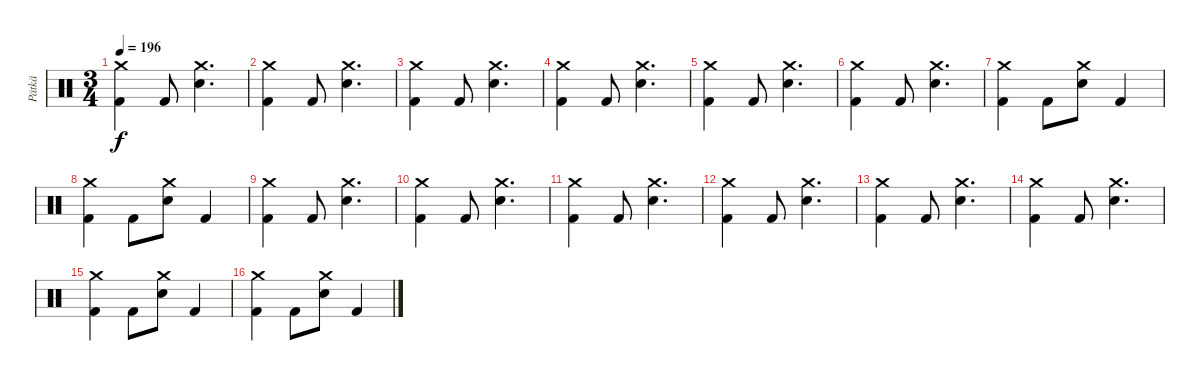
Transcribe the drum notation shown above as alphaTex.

\track ("Pätkä" "Pätkä") {instrument percussion}
\staff {score}
\articulation defaults
\ts (3 4)
\tempo 196
\clef neutral
\ks c
("Crash medium (hit)" "Kick (hit) 2").4{dy f} "Kick (hit) 2".8 ("Crash medium (hit)" "Electric Snare (hit)").4{d} |
("Crash medium (hit)" "Kick (hit) 2").4 "Kick (hit) 2".8 ("Crash medium (hit)" "Electric Snare (hit)").4{d} |
("Crash medium (hit)" "Kick (hit) 2").4 "Kick (hit) 2".8 ("Crash medium (hit)" "Electric Snare (hit)").4{d} |
("Crash medium (hit)" "Kick (hit) 2").4 "Kick (hit) 2".8 ("Crash medium (hit)" "Electric Snare (hit)").4{d} |
("Crash medium (hit)" "Kick (hit) 2").4 "Kick (hit) 2".8 ("Crash medium (hit)" "Electric Snare (hit)").4{d} |
("Crash medium (hit)" "Kick (hit) 2").4 "Kick (hit) 2".8 ("Crash medium (hit)" "Electric Snare (hit)").4{d} |
("Crash medium (hit)" "Kick (hit) 2").4 "Kick (hit) 2".8 ("Crash medium (hit)" "Electric Snare (hit)").8 "Kick (hit) 2".4 |
("Crash medium (hit)" "Kick (hit) 2").4 "Kick (hit) 2".8 ("Crash medium (hit)" "Electric Snare (hit)").8 "Kick (hit) 2".4 |
("Crash medium (hit)" "Kick (hit) 2").4 "Kick (hit) 2".8 ("Crash medium (hit)" "Electric Snare (hit)").4{d} |
("Crash medium (hit)" "Kick (hit) 2").4 "Kick (hit) 2".8 ("Crash medium (hit)" "Electric Snare (hit)").4{d} |
("Crash medium (hit)" "Kick (hit) 2").4 "Kick (hit) 2".8 ("Crash medium (hit)" "Electric Snare (hit)").4{d} |
("Crash medium (hit)" "Kick (hit) 2").4 "Kick (hit) 2".8 ("Crash medium (hit)" "Electric Snare (hit)").4{d} |
("Crash medium (hit)" "Kick (hit) 2").4 "Kick (hit) 2".8 ("Crash medium (hit)" "Electric Snare (hit)").4{d} |
("Crash medium (hit)" "Kick (hit) 2").4 "Kick (hit) 2".8 ("Crash medium (hit)" "Electric Snare (hit)").4{d} |
("Crash medium (hit)" "Kick (hit) 2").4 "Kick (hit) 2".8 ("Crash medium (hit)" "Electric Snare (hit)").8 "Kick (hit) 2".4 |
("Crash medium (hit)" "Kick (hit) 2").4 "Kick (hit) 2".8 ("Crash medium (hit)" "Electric Snare (hit)").8 "Kick (hit) 2".4
